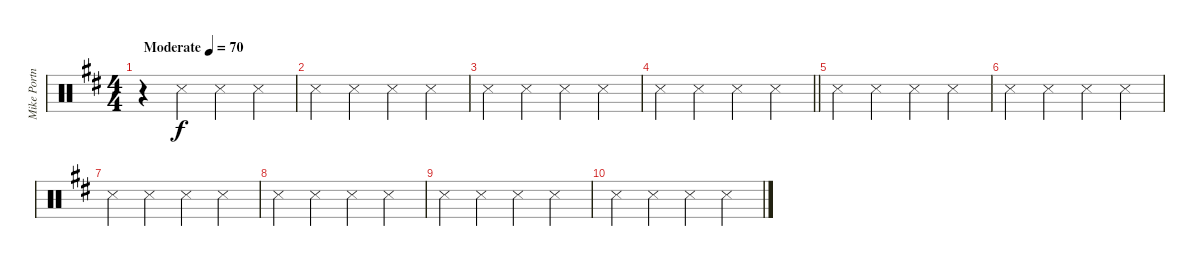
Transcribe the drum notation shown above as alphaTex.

\track ("Mike Portnoy" "Mike Portn") {instrument percussion}
\staff {score}
\articulation defaults
\ts (4 4)
\tempo (70 "Moderate")
\clef neutral
\ks bminor
r.4{dy f volume 0} "Snare (side stick) 3".4{volume 16} "Snare (side stick) 3".4 "Snare (side stick) 3".4 |
"Snare (side stick) 3".4 "Snare (side stick) 3".4 "Snare (side stick) 3".4 "Snare (side stick) 3".4 |
"Snare (side stick) 3".4 "Snare (side stick) 3".4 "Snare (side stick) 3".4 "Snare (side stick) 3".4 |
\barLineRight lightlight "Snare (side stick) 3".4 "Snare (side stick) 3".4 "Snare (side stick) 3".4 "Snare (side stick) 3".4
|
"Snare (side stick) 3".4 "Snare (side stick) 3".4 "Snare (side stick) 3".4 "Snare (side stick) 3".4 |
"Snare (side stick) 3".4 "Snare (side stick) 3".4{volume 0} "Snare (side stick) 3".4 "Snare (side stick) 3".4 |
"Snare (side stick) 3".4 "Snare (side stick) 3".4 "Snare (side stick) 3".4 "Snare (side stick) 3".4 |
"Snare (side stick) 3".4 "Snare (side stick) 3".4 "Snare (side stick) 3".4 "Snare (side stick) 3".4 |
"Snare (side stick) 3".4 "Snare (side stick) 3".4 "Snare (side stick) 3".4 "Snare (side stick) 3".4 |
"Snare (side stick) 3".4 "Snare (side stick) 3".4 "Snare (side stick) 3".4 "Snare (side stick) 3".4
